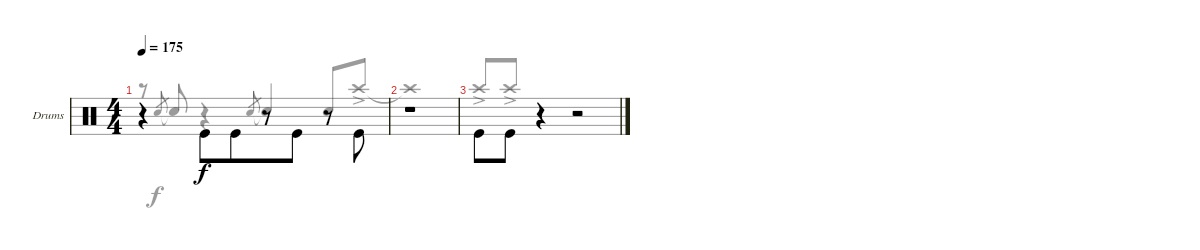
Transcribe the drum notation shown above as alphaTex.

\defaultSystemsLayout 4
\bracketExtendMode groupsimilarinstruments
\firstSystemTrackNameOrientation horizontal
\otherSystemsTrackNameOrientation horizontal
\track ("Drum" "Drums") {instrument percussion}
\staff {score}
\articulation defaults
\voice
\ts (4 4)
\tempo 175
\clef neutral
\scale
1.02648
\ks c
r.4{dy f beam merge} "Kick (hit)".8{beam invert} "Kick (hit)".8{beam merge} r.8 "Kick (hit)".8 r.8{beam invert beam merge} "Kick (hit)".8{beam invert} |
\scale
0.973518 r.1 |
\scale
1.02648 "Kick (hit)".8{beam invert} "Kick (hit)".8 r.4 r.2
\voice
\clef neutral
\ottava regular
\simile none
\scale
1.02648
\ks c
r.8{dy f} "Snare (hit) 2".8{gr beam invert} "Snare (hit) 2"{t}.8{beam invert} r.4 "Snare (hit) 2".8{gr beam invert} "Snare (hit) 2"{t}.4{beam invert} "Snare (hit) 2".8{beam invert} "Crash high (hit)"{ac}.8 |
\scale
0.973518 "Crash high (hit)"{t}.1 |
\scale
1.02648 "Crash high (hit)"{ac}.8{beam invert} "Crash high (hit)"{ac}.8 r.4 r.2
